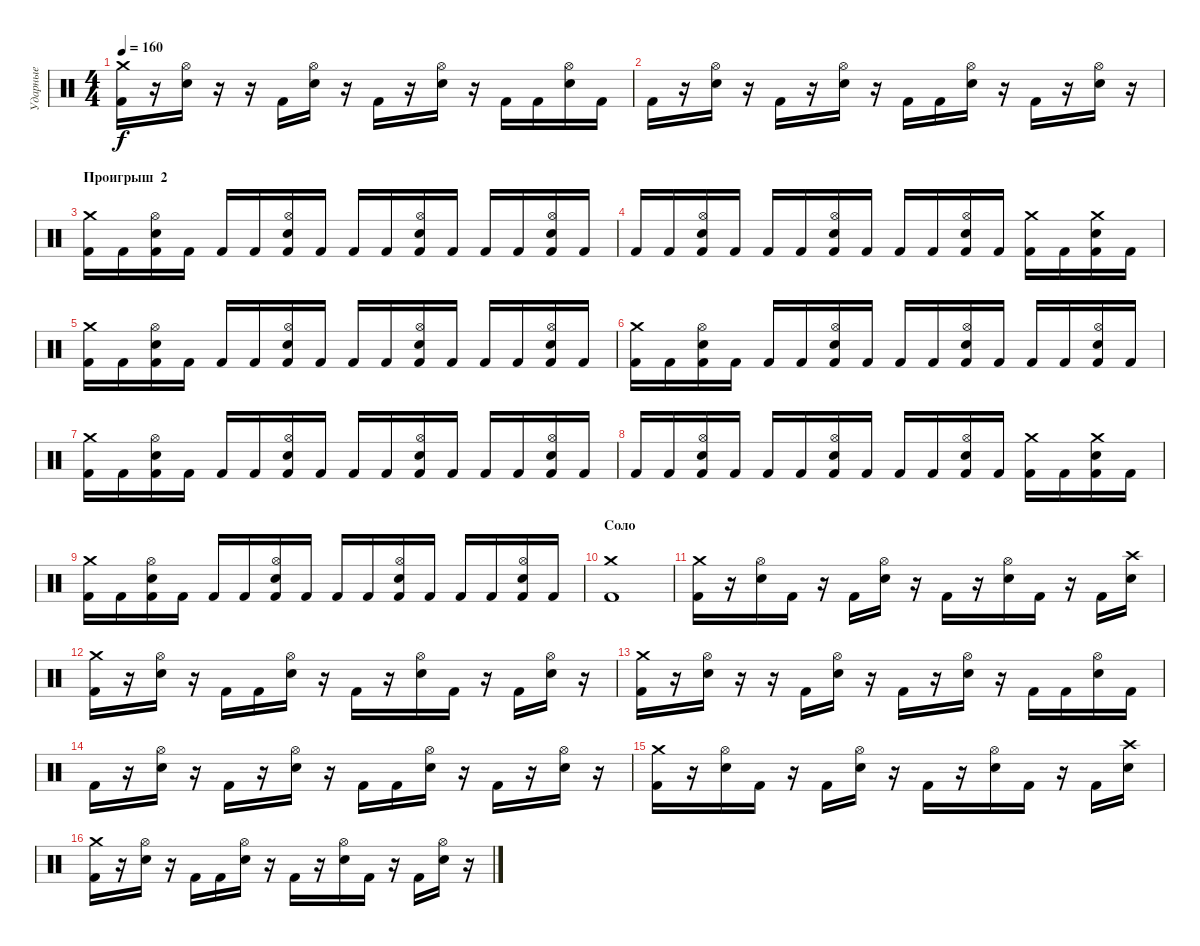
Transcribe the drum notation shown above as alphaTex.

\track ("Ударные" "Ударные") {instrument percussion}
\staff {score}
\articulation defaults
\ts (4 4)
\tempo 160
\clef neutral
\ks c
("Crash medium (hit)" "Kick (hit) 2").16{dy f} r.16 ("Hi-Hat (open)" "Electric Snare (hit)").16 r.16 r.16 "Kick (hit) 2".16 ("Hi-Hat (open)" "Electric Snare (hit)").16 r.16 "Kick (hit) 2".16 r.16 ("Hi-Hat (open)" "Electric Snare (hit)").16 r.16 "Kick (hit) 2".16 "Kick (hit) 2".16 ("Hi-Hat (open)" "Electric Snare (hit)").16 "Kick (hit) 2".16 |
"Kick (hit) 2".16 r.16 ("Hi-Hat (open)" "Electric Snare (hit)").16 r.16 "Kick (hit) 2".16 r.16 ("Hi-Hat (open)" "Electric Snare (hit)").16 r.16 "Kick (hit) 2".16 "Kick (hit) 2".16 ("Hi-Hat (open)" "Electric Snare (hit)").16 r.16 "Kick (hit) 2".16 r.16 ("Hi-Hat (open)" "Electric Snare (hit)").16 r.16 |
\section ("" "Проигрыш  2")
("Crash medium (hit)" "Kick (hit) 2").16 "Kick (hit) 2".16 ("Hi-Hat (open)" "Electric Snare (hit)" "Kick (hit) 2").16 "Kick (hit) 2".16 "Kick (hit) 2".16 "Kick (hit) 2".16 ("Hi-Hat (open)" "Electric Snare (hit)" "Kick (hit) 2").16 "Kick (hit) 2".16 "Kick (hit) 2".16 "Kick (hit) 2".16 ("Hi-Hat (open)" "Electric Snare (hit)" "Kick (hit) 2").16 "Kick (hit) 2".16 "Kick (hit) 2".16 "Kick (hit) 2".16 ("Hi-Hat (open)" "Electric Snare (hit)" "Kick (hit) 2").16 "Kick (hit) 2".16 |
"Kick (hit) 2".16 "Kick (hit) 2".16 ("Hi-Hat (open)" "Electric Snare (hit)" "Kick (hit) 2").16 "Kick (hit) 2".16 "Kick (hit) 2".16 "Kick (hit) 2".16 ("Hi-Hat (open)" "Electric Snare (hit)" "Kick (hit) 2").16 "Kick (hit) 2".16 "Kick (hit) 2".16 "Kick (hit) 2".16 ("Hi-Hat (open)" "Electric Snare (hit)" "Kick (hit) 2").16 "Kick (hit) 2".16 ("Crash medium (hit)" "Kick (hit) 2").16 "Kick (hit) 2".16 ("Crash medium (hit)" "Electric Snare (hit)" "Kick (hit) 2").16 "Kick (hit) 2".16 |
("Crash medium (hit)" "Kick (hit) 2").16 "Kick (hit) 2".16 ("Hi-Hat (open)" "Electric Snare (hit)" "Kick (hit) 2").16 "Kick (hit) 2".16 "Kick (hit) 2".16 "Kick (hit) 2".16 ("Hi-Hat (open)" "Electric Snare (hit)" "Kick (hit) 2").16 "Kick (hit) 2".16 "Kick (hit) 2".16 "Kick (hit) 2".16 ("Hi-Hat (open)" "Electric Snare (hit)" "Kick (hit) 2").16 "Kick (hit) 2".16 "Kick (hit) 2".16 "Kick (hit) 2".16 ("Hi-Hat (open)" "Electric Snare (hit)" "Kick (hit) 2").16 "Kick (hit) 2".16 |
("Crash medium (hit)" "Kick (hit) 2").16 "Kick (hit) 2".16 ("Hi-Hat (open)" "Electric Snare (hit)" "Kick (hit) 2").16 "Kick (hit) 2".16 "Kick (hit) 2".16 "Kick (hit) 2".16 ("Hi-Hat (open)" "Electric Snare (hit)" "Kick (hit) 2").16 "Kick (hit) 2".16 "Kick (hit) 2".16 "Kick (hit) 2".16 ("Hi-Hat (open)" "Electric Snare (hit)" "Kick (hit) 2").16 "Kick (hit) 2".16 "Kick (hit) 2".16 "Kick (hit) 2".16 ("Electric Snare (hit)" "Hi-Hat (open)" "Kick (hit) 2").16 "Kick (hit) 2".16 |
("Crash medium (hit)" "Kick (hit) 2").16 "Kick (hit) 2".16 ("Hi-Hat (open)" "Electric Snare (hit)" "Kick (hit) 2").16 "Kick (hit) 2".16 "Kick (hit) 2".16 "Kick (hit) 2".16 ("Hi-Hat (open)" "Electric Snare (hit)" "Kick (hit) 2").16 "Kick (hit) 2".16 "Kick (hit) 2".16 "Kick (hit) 2".16 ("Hi-Hat (open)" "Electric Snare (hit)" "Kick (hit) 2").16 "Kick (hit) 2".16 "Kick (hit) 2".16 "Kick (hit) 2".16 ("Hi-Hat (open)" "Electric Snare (hit)" "Kick (hit) 2").16 "Kick (hit) 2".16 |
"Kick (hit) 2".16 "Kick (hit) 2".16 ("Hi-Hat (open)" "Electric Snare (hit)" "Kick (hit) 2").16 "Kick (hit) 2".16 "Kick (hit) 2".16 "Kick (hit) 2".16 ("Hi-Hat (open)" "Electric Snare (hit)" "Kick (hit) 2").16 "Kick (hit) 2".16 "Kick (hit) 2".16 "Kick (hit) 2".16 ("Hi-Hat (open)" "Electric Snare (hit)" "Kick (hit) 2").16 "Kick (hit) 2".16 ("Crash medium (hit)" "Kick (hit) 2").16 "Kick (hit) 2".16 ("Crash medium (hit)" "Electric Snare (hit)" "Kick (hit) 2").16 "Kick (hit) 2".16 |
("Crash medium (hit)" "Kick (hit) 2").16 "Kick (hit) 2".16 ("Hi-Hat (open)" "Electric Snare (hit)" "Kick (hit) 2").16 "Kick (hit) 2".16 "Kick (hit) 2".16 "Kick (hit) 2".16 ("Hi-Hat (open)" "Electric Snare (hit)" "Kick (hit) 2").16 "Kick (hit) 2".16 "Kick (hit) 2".16 "Kick (hit) 2".16 ("Hi-Hat (open)" "Electric Snare (hit)" "Kick (hit) 2").16 "Kick (hit) 2".16 "Kick (hit) 2".16 "Kick (hit) 2".16 ("Hi-Hat (open)" "Electric Snare (hit)" "Kick (hit) 2").16 "Kick (hit) 2".16 |
\section ("" "Соло")
("Crash medium (hit)" "Kick (hit) 2").1 |
("Crash medium (hit)" "Kick (hit) 2").16 r.16 ("Hi-Hat (open)" "Electric Snare (hit)").16 "Kick (hit) 2".16 r.16 "Kick (hit) 2".16 ("Hi-Hat (open)" "Electric Snare (hit)").16 r.16 "Kick (hit) 2".16 r.16 ("Hi-Hat (open)" "Electric Snare (hit)").16 "Kick (hit) 2".16 r.16 "Kick (hit) 2".16 ("Crash high (hit)" "Electric Snare (hit)").16 |
("Crash medium (hit)" "Kick (hit) 2").16 r.16 ("Hi-Hat (open)" "Electric Snare (hit)").16 r.16 "Kick (hit) 2".16 "Kick (hit) 2".16 ("Hi-Hat (open)" "Electric Snare (hit)").16 r.16 "Kick (hit) 2".16 r.16 ("Hi-Hat (open)" "Electric Snare (hit)").16 "Kick (hit) 2".16 r.16 "Kick (hit) 2".16 ("Hi-Hat (open)" "Electric Snare (hit)").16 r.16 |
("Crash medium (hit)" "Kick (hit) 2").16 r.16 ("Hi-Hat (open)" "Electric Snare (hit)").16 r.16 r.16 "Kick (hit) 2".16 ("Hi-Hat (open)" "Electric Snare (hit)").16 r.16 "Kick (hit) 2".16 r.16 ("Hi-Hat (open)" "Electric Snare (hit)").16 r.16 "Kick (hit) 2".16 "Kick (hit) 2".16 ("Hi-Hat (open)" "Electric Snare (hit)").16 "Kick (hit) 2".16 |
"Kick (hit) 2".16 r.16 ("Hi-Hat (open)" "Electric Snare (hit)").16 r.16 "Kick (hit) 2".16 r.16 ("Hi-Hat (open)" "Electric Snare (hit)").16 r.16 "Kick (hit) 2".16 "Kick (hit) 2".16 ("Hi-Hat (open)" "Electric Snare (hit)").16 r.16 "Kick (hit) 2".16 r.16 ("Hi-Hat (open)" "Electric Snare (hit)").16 r.16 |
("Crash medium (hit)" "Kick (hit) 2").16 r.16 ("Hi-Hat (open)" "Electric Snare (hit)").16 "Kick (hit) 2".16 r.16 "Kick (hit) 2".16 ("Hi-Hat (open)" "Electric Snare (hit)").16 r.16 "Kick (hit) 2".16 r.16 ("Hi-Hat (open)" "Electric Snare (hit)").16 "Kick (hit) 2".16 r.16 "Kick (hit) 2".16 ("Crash high (hit)" "Electric Snare (hit)").16 |
("Crash medium (hit)" "Kick (hit) 2").16 r.16 ("Hi-Hat (open)" "Electric Snare (hit)").16 r.16 "Kick (hit) 2".16 "Kick (hit) 2".16 ("Hi-Hat (open)" "Electric Snare (hit)").16 r.16 "Kick (hit) 2".16 r.16 ("Hi-Hat (open)" "Electric Snare (hit)").16 "Kick (hit) 2".16 r.16 "Kick (hit) 2".16 ("Hi-Hat (open)" "Electric Snare (hit)").16 r.16
